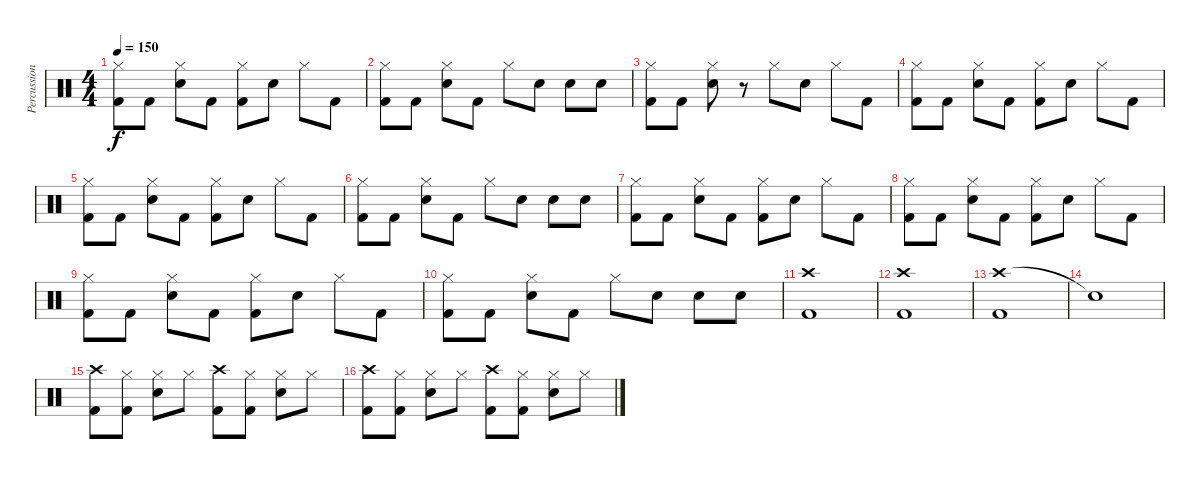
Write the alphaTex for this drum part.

\track ("Percussion" "Percussion") {instrument percussion}
\staff {score}
\articulation defaults
\ts (4 4)
\tempo 150
\clef neutral
\ks c
("Hi-Hat (closed)" "Kick (hit) 2").8{dy f} "Kick (hit) 2".8 ("Hi-Hat (closed)" "Electric Snare (hit)").8 "Kick (hit) 2".8 ("Hi-Hat (closed)" "Kick (hit) 2").8 "Electric Snare (hit)".8 "Hi-Hat (closed)".8 "Kick (hit) 2".8 |
("Hi-Hat (closed)" "Kick (hit) 2").8 "Kick (hit) 2".8 ("Hi-Hat (closed)" "Electric Snare (hit)").8 "Kick (hit) 2".8 "Hi-Hat (closed)".8 "Electric Snare (hit)".8 "Electric Snare (hit)".8 "Electric Snare (hit)".8 |
("Hi-Hat (closed)" "Kick (hit) 2").8 "Kick (hit) 2".8 ("Hi-Hat (closed)" "Electric Snare (hit)").8 r.8 "Hi-Hat (closed)".8 "Electric Snare (hit)".8 "Hi-Hat (closed)".8 "Kick (hit) 2".8 |
("Hi-Hat (closed)" "Kick (hit) 2").8 "Kick (hit) 2".8 ("Hi-Hat (closed)" "Electric Snare (hit)").8 "Kick (hit) 2".8 ("Hi-Hat (closed)" "Kick (hit) 2").8 "Electric Snare (hit)".8 "Hi-Hat (closed)".8 "Kick (hit) 2".8 |
("Hi-Hat (closed)" "Kick (hit) 2").8 "Kick (hit) 2".8 ("Hi-Hat (closed)" "Electric Snare (hit)").8 "Kick (hit) 2".8 ("Hi-Hat (closed)" "Kick (hit) 2").8 "Electric Snare (hit)".8 "Hi-Hat (closed)".8 "Kick (hit) 2".8 |
("Hi-Hat (closed)" "Kick (hit) 2").8 "Kick (hit) 2".8 ("Hi-Hat (closed)" "Electric Snare (hit)").8 "Kick (hit) 2".8 "Hi-Hat (closed)".8 "Electric Snare (hit)".8 "Electric Snare (hit)".8 "Electric Snare (hit)".8 |
("Hi-Hat (closed)" "Kick (hit) 2").8 "Kick (hit) 2".8 ("Hi-Hat (closed)" "Electric Snare (hit)").8 "Kick (hit) 2".8 ("Hi-Hat (closed)" "Kick (hit) 2").8 "Electric Snare (hit)".8 "Hi-Hat (closed)".8 "Kick (hit) 2".8 |
("Hi-Hat (closed)" "Kick (hit) 2").8 "Kick (hit) 2".8 ("Hi-Hat (closed)" "Electric Snare (hit)").8 "Kick (hit) 2".8 ("Hi-Hat (closed)" "Kick (hit) 2").8 "Electric Snare (hit)".8 "Hi-Hat (closed)".8 "Kick (hit) 2".8 |
("Hi-Hat (closed)" "Kick (hit) 2").8 "Kick (hit) 2".8 ("Hi-Hat (closed)" "Electric Snare (hit)").8 "Kick (hit) 2".8 ("Hi-Hat (closed)" "Kick (hit) 2").8 "Electric Snare (hit)".8 "Hi-Hat (closed)".8 "Kick (hit) 2".8 |
("Hi-Hat (closed)" "Kick (hit) 2").8 "Kick (hit) 2".8 ("Hi-Hat (closed)" "Electric Snare (hit)").8 "Kick (hit) 2".8 "Hi-Hat (closed)".8 "Electric Snare (hit)".8 "Electric Snare (hit)".8 "Electric Snare (hit)".8 |
("Crash high (hit)" "Kick (hit) 2").1 |
("Crash high (hit)" "Kick (hit) 2").1 |
("Crash high (hit)" "Kick (hit) 2").1 |
"Snare (hit)"{t}.1 |
("Crash high (hit)" "Kick (hit) 2").8 ("Hi-Hat (closed)" "Kick (hit) 2").8 ("Hi-Hat (closed)" "Electric Snare (hit)").8 "Hi-Hat (closed)".8 ("Crash high (hit)" "Kick (hit) 2").8 ("Hi-Hat (closed)" "Kick (hit) 2").8 ("Hi-Hat (closed)" "Electric Snare (hit)").8 "Hi-Hat (closed)".8 |
("Crash high (hit)" "Kick (hit) 2").8 ("Hi-Hat (closed)" "Kick (hit) 2").8 ("Hi-Hat (closed)" "Electric Snare (hit)").8 "Hi-Hat (closed)".8 ("Crash high (hit)" "Kick (hit) 2").8 ("Hi-Hat (closed)" "Kick (hit) 2").8 ("Hi-Hat (closed)" "Electric Snare (hit)").8 "Hi-Hat (closed)".8
